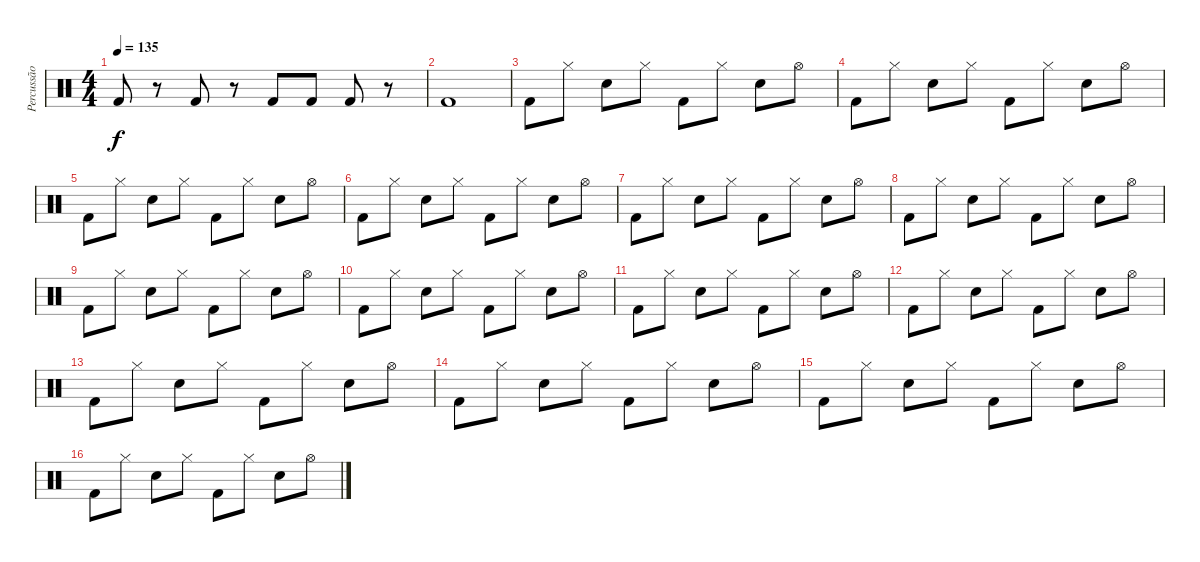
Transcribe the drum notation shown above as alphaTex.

\track ("Percussão" "Percussão") {instrument percussion}
\staff {score}
\articulation defaults
\ts (4 4)
\tempo 135
\clef neutral
\ks c "Kick (hit) 2".8{dy f}
r.8 "Kick (hit) 2".8 r.8 "Kick (hit) 2".8 "Kick (hit) 2".8 "Kick (hit) 2".8 r.8 |
"Kick (hit) 2".1 |
"Kick (hit) 2".8 "Hi-Hat (closed)".8 "Electric Snare (hit)".8 "Hi-Hat (closed)".8 "Kick (hit) 2".8 "Hi-Hat (closed)".8 "Electric Snare (hit)".8 "Hi-Hat (open)".8 |
"Kick (hit) 2".8 "Hi-Hat (closed)".8 "Electric Snare (hit)".8 "Hi-Hat (closed)".8 "Kick (hit) 2".8 "Hi-Hat (closed)".8 "Electric Snare (hit)".8 "Hi-Hat (open)".8 |
"Kick (hit) 2".8 "Hi-Hat (closed)".8 "Electric Snare (hit)".8 "Hi-Hat (closed)".8 "Kick (hit) 2".8 "Hi-Hat (closed)".8 "Electric Snare (hit)".8 "Hi-Hat (open)".8 |
"Kick (hit) 2".8 "Hi-Hat (closed)".8 "Electric Snare (hit)".8 "Hi-Hat (closed)".8 "Kick (hit) 2".8 "Hi-Hat (closed)".8 "Electric Snare (hit)".8 "Hi-Hat (open)".8 |
"Kick (hit) 2".8 "Hi-Hat (closed)".8 "Electric Snare (hit)".8 "Hi-Hat (closed)".8 "Kick (hit) 2".8 "Hi-Hat (closed)".8 "Electric Snare (hit)".8 "Hi-Hat (open)".8 |
"Kick (hit) 2".8 "Hi-Hat (closed)".8 "Electric Snare (hit)".8 "Hi-Hat (closed)".8 "Kick (hit) 2".8 "Hi-Hat (closed)".8 "Electric Snare (hit)".8 "Hi-Hat (open)".8 |
"Kick (hit) 2".8 "Hi-Hat (closed)".8 "Electric Snare (hit)".8 "Hi-Hat (closed)".8 "Kick (hit) 2".8 "Hi-Hat (closed)".8 "Electric Snare (hit)".8 "Hi-Hat (open)".8 |
"Kick (hit) 2".8 "Hi-Hat (closed)".8 "Electric Snare (hit)".8 "Hi-Hat (closed)".8 "Kick (hit) 2".8 "Hi-Hat (closed)".8 "Electric Snare (hit)".8 "Hi-Hat (open)".8 |
"Kick (hit) 2".8 "Hi-Hat (closed)".8 "Electric Snare (hit)".8 "Hi-Hat (closed)".8 "Kick (hit) 2".8 "Hi-Hat (closed)".8 "Electric Snare (hit)".8 "Hi-Hat (open)".8 |
"Kick (hit) 2".8 "Hi-Hat (closed)".8 "Electric Snare (hit)".8 "Hi-Hat (closed)".8 "Kick (hit) 2".8 "Hi-Hat (closed)".8 "Electric Snare (hit)".8 "Hi-Hat (open)".8 |
"Kick (hit) 2".8 "Hi-Hat (closed)".8 "Electric Snare (hit)".8 "Hi-Hat (closed)".8 "Kick (hit) 2".8 "Hi-Hat (closed)".8 "Electric Snare (hit)".8 "Hi-Hat (open)".8 |
"Kick (hit) 2".8 "Hi-Hat (closed)".8 "Electric Snare (hit)".8 "Hi-Hat (closed)".8 "Kick (hit) 2".8 "Hi-Hat (closed)".8 "Electric Snare (hit)".8 "Hi-Hat (open)".8 |
"Kick (hit) 2".8 "Hi-Hat (closed)".8 "Electric Snare (hit)".8 "Hi-Hat (closed)".8 "Kick (hit) 2".8 "Hi-Hat (closed)".8 "Electric Snare (hit)".8 "Hi-Hat (open)".8 |
"Kick (hit) 2".8 "Hi-Hat (closed)".8 "Electric Snare (hit)".8 "Hi-Hat (closed)".8 "Kick (hit) 2".8 "Hi-Hat (closed)".8 "Electric Snare (hit)".8 "Hi-Hat (open)".8
